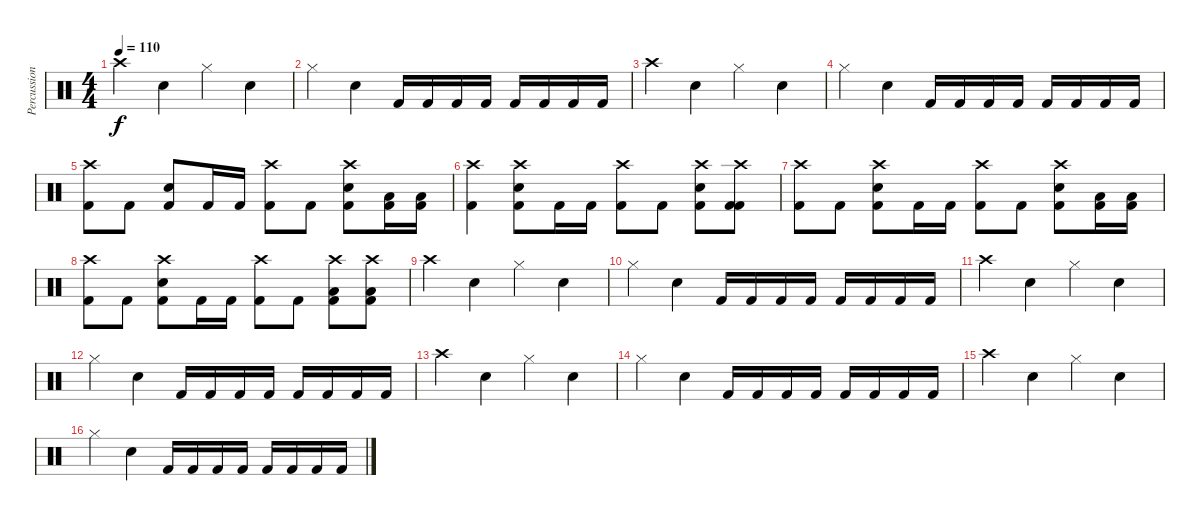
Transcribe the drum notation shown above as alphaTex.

\track ("Percussion" "Percussion") {instrument percussion}
\staff {score}
\articulation defaults
\ts (4 4)
\tempo 110
\clef neutral
\ks c "Crash high (hit)".4{dy f} "Snare (hit) 2".4 "Hi-Hat (closed)".4 "Snare (hit) 2".4
|
"Hi-Hat (closed)".4 "Snare (hit) 2".4 "Kick (hit) 2".16 "Kick (hit) 2".16 "Kick (hit) 2".16 "Kick (hit) 2".16 "Kick (hit) 2".16 "Kick (hit) 2".16 "Kick (hit) 2".16 "Kick (hit) 2".16 |
"Crash high (hit)".4 "Snare (hit) 2".4 "Hi-Hat (closed)".4 "Snare (hit) 2".4 |
"Hi-Hat (closed)".4 "Snare (hit) 2".4 "Kick (hit) 2".16 "Kick (hit) 2".16 "Kick (hit) 2".16 "Kick (hit) 2".16 "Kick (hit) 2".16 "Kick (hit) 2".16 "Kick (hit) 2".16 "Kick (hit) 2".16 |
("Crash high (hit)" "Kick (hit) 2").8 "Kick (hit) 2".8 ("Snare (hit) 2" "Kick (hit) 2").8 "Kick (hit) 2".16 "Kick (hit) 2".16 ("Crash high (hit)" "Kick (hit) 2").8 "Kick (hit) 2".8 ("Crash high (hit)" "Snare (hit) 2" "Kick (hit) 2").8 ("Low Tom (hit)" "Kick (hit) 2").16 ("Low Floor Tom (hit)" "Kick (hit) 2").16 |
("Crash high (hit)" "Kick (hit) 2").4 ("Crash high (hit)" "Snare (hit) 2" "Kick (hit) 2").8 "Kick (hit) 2".16 "Kick (hit) 2".16 ("Crash high (hit)" "Kick (hit) 2").8 "Kick (hit) 2".8 ("Crash high (hit)" "Snare (hit) 2" "Kick (hit) 2").8 ("Crash high (hit)" "Kick (hit) 2" "Kick (hit) 2").8 |
("Crash high (hit)" "Kick (hit) 2").8 "Kick (hit) 2".8 ("Crash high (hit)" "Snare (hit) 2" "Kick (hit) 2").8 "Kick (hit) 2".16 "Kick (hit) 2".16 ("Crash high (hit)" "Kick (hit) 2").8 "Kick (hit) 2".8 ("Crash high (hit)" "Snare (hit) 2" "Kick (hit) 2").8 ("Low Tom (hit)" "Kick (hit) 2").16 ("Low Floor Tom (hit)" "Kick (hit) 2").16 |
("Crash high (hit)" "Kick (hit) 2").8 "Kick (hit) 2".8 ("Crash high (hit)" "Snare (hit) 2" "Kick (hit) 2").8 "Kick (hit) 2".16 "Kick (hit) 2".16 ("Crash high (hit)" "Kick (hit) 2").8 "Kick (hit) 2".8 ("Crash high (hit)" "Low Tom (hit)" "Kick (hit) 2").8 ("Crash high (hit)" "Low Floor Tom (hit)" "Kick (hit) 2").8 |
"Crash high (hit)".4 "Snare (hit) 2".4 "Hi-Hat (closed)".4 "Snare (hit) 2".4 |
"Hi-Hat (closed)".4 "Snare (hit) 2".4 "Kick (hit) 2".16 "Kick (hit) 2".16 "Kick (hit) 2".16 "Kick (hit) 2".16 "Kick (hit) 2".16 "Kick (hit) 2".16 "Kick (hit) 2".16 "Kick (hit) 2".16 |
"Crash high (hit)".4 "Snare (hit) 2".4 "Hi-Hat (closed)".4 "Snare (hit) 2".4 |
"Hi-Hat (closed)".4 "Snare (hit) 2".4 "Kick (hit) 2".16 "Kick (hit) 2".16 "Kick (hit) 2".16 "Kick (hit) 2".16 "Kick (hit) 2".16 "Kick (hit) 2".16 "Kick (hit) 2".16 "Kick (hit) 2".16 |
"Crash high (hit)".4 "Snare (hit) 2".4 "Hi-Hat (closed)".4 "Snare (hit) 2".4 |
"Hi-Hat (closed)".4 "Snare (hit) 2".4 "Kick (hit) 2".16 "Kick (hit) 2".16 "Kick (hit) 2".16 "Kick (hit) 2".16 "Kick (hit) 2".16 "Kick (hit) 2".16 "Kick (hit) 2".16 "Kick (hit) 2".16 |
"Crash high (hit)".4 "Snare (hit) 2".4 "Hi-Hat (closed)".4 "Snare (hit) 2".4 |
"Hi-Hat (closed)".4 "Snare (hit) 2".4 "Kick (hit) 2".16 "Kick (hit) 2".16 "Kick (hit) 2".16 "Kick (hit) 2".16 "Kick (hit) 2".16 "Kick (hit) 2".16 "Kick (hit) 2".16 "Kick (hit) 2".16
